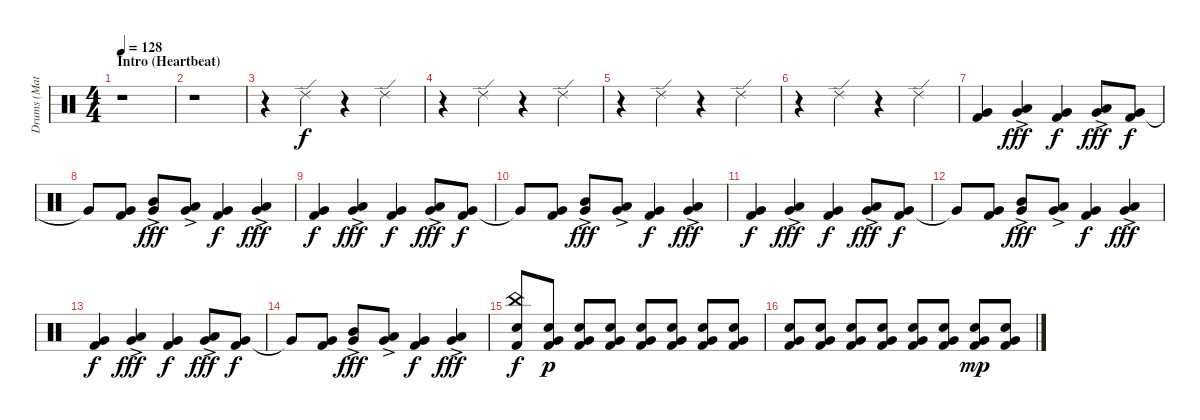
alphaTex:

\track ("Drums (Matt)" "Drums (Mat") {instrument percussion}
\staff {score}
\articulation defaults
\ts (4 4)
\section ("" "Intro (Heartbeat)")
\tempo 128
\clef neutral
\ks c
r.1{dy f} |
r.1 |
r.4 "Ride (edge) 2".4 r.4 "Ride (edge) 2".4 |
r.4 "Ride (edge) 2".4 r.4 "Ride (edge) 2".4 |
r.4 "Ride (edge) 2".4 r.4 "Ride (edge) 2".4 |
r.4 "Ride (edge) 2".4 r.4 "Ride (edge) 2".4 |
("Very Low Tom (hit)" "Kick (hit) 2").4 ("Low Tom (hit)" "Very Low Tom (hit)"{ac}).4{dy fff} ("Very Low Tom (hit)" "Kick (hit) 2").4{dy f} ("Low Tom (hit)" "Very Low Tom (hit)"{ac}).8{dy fff} ("Very Low Tom (hit)" "Kick (hit) 2").8{dy f} |
"Very Low Tom (hit)"{t}.8 ("Very Low Tom (hit)" "Kick (hit) 2").8 ("Mid Tom (hit)" "Very Low Tom (hit)"{ac}).8{dy fff} ("Low Tom (hit)" "Very Low Tom (hit)"{ac}).8 ("Very Low Tom (hit)" "Kick (hit) 2").4{dy f} ("Low Tom (hit)" "Very Low Tom (hit)"{ac}).4{dy fff} |
("Very Low Tom (hit)" "Kick (hit) 2").4{dy f} ("Low Tom (hit)" "Very Low Tom (hit)"{ac}).4{dy fff} ("Very Low Tom (hit)" "Kick (hit) 2").4{dy f} ("Low Tom (hit)" "Very Low Tom (hit)"{ac}).8{dy fff} ("Very Low Tom (hit)" "Kick (hit) 2").8{dy f} |
"Very Low Tom (hit)"{t}.8 ("Very Low Tom (hit)" "Kick (hit) 2").8 ("Mid Tom (hit)" "Very Low Tom (hit)"{ac}).8{dy fff} ("Low Tom (hit)" "Very Low Tom (hit)"{ac}).8 ("Very Low Tom (hit)" "Kick (hit) 2").4{dy f} ("Low Tom (hit)" "Very Low Tom (hit)"{ac}).4{dy fff} |
("Very Low Tom (hit)" "Kick (hit) 2").4{dy f} ("Low Tom (hit)" "Very Low Tom (hit)"{ac}).4{dy fff} ("Very Low Tom (hit)" "Kick (hit) 2").4{dy f} ("Low Tom (hit)" "Very Low Tom (hit)"{ac}).8{dy fff} ("Very Low Tom (hit)" "Kick (hit) 2").8{dy f} |
"Very Low Tom (hit)"{t}.8 ("Very Low Tom (hit)" "Kick (hit) 2").8 ("Mid Tom (hit)" "Very Low Tom (hit)"{ac}).8{dy fff} ("Low Tom (hit)" "Very Low Tom (hit)"{ac}).8 ("Very Low Tom (hit)" "Kick (hit) 2").4{dy f} ("Low Tom (hit)" "Very Low Tom (hit)"{ac}).4{dy fff} |
("Very Low Tom (hit)" "Kick (hit) 2").4{dy f} ("Low Tom (hit)" "Very Low Tom (hit)"{ac}).4{dy fff} ("Very Low Tom (hit)" "Kick (hit) 2").4{dy f} ("Low Tom (hit)" "Very Low Tom (hit)"{ac}).8{dy fff} ("Very Low Tom (hit)" "Kick (hit) 2").8{dy f} |
"Very Low Tom (hit)"{t}.8 ("Very Low Tom (hit)" "Kick (hit) 2").8 ("Mid Tom (hit)" "Very Low Tom (hit)"{ac}).8{dy fff} ("Low Tom (hit)" "Very Low Tom (hit)"{ac}).8 ("Very Low Tom (hit)" "Kick (hit) 2").4{dy f} ("Low Tom (hit)" "Very Low Tom (hit)"{ac}).4{dy fff} |
("China (hit)" "Snare (hit) 2" "Kick (hit) 2").8{dy f} ("Very Low Tom (hit)" "Snare (hit) 2" "Kick (hit) 2").8{dy p} ("Very Low Tom (hit)" "Snare (hit) 2" "Kick (hit) 2").8 ("Very Low Tom (hit)" "Snare (hit) 2" "Kick (hit) 2").8 ("Very Low Tom (hit)" "Snare (hit) 2" "Kick (hit) 2").8 ("Very Low Tom (hit)" "Snare (hit) 2" "Kick (hit) 2").8 ("Very Low Tom (hit)" "Snare (hit) 2" "Kick (hit) 2").8 ("Very Low Tom (hit)" "Snare (hit) 2" "Kick (hit) 2").8 |
("Very Low Tom (hit)" "Snare (hit) 2" "Kick (hit) 2").8 ("Very Low Tom (hit)" "Snare (hit) 2" "Kick (hit) 2").8 ("Very Low Tom (hit)" "Snare (hit) 2" "Kick (hit) 2").8 ("Very Low Tom (hit)" "Snare (hit) 2" "Kick (hit) 2").8 ("Very Low Tom (hit)" "Snare (hit) 2" "Kick (hit) 2").8 ("Very Low Tom (hit)" "Snare (hit) 2" "Kick (hit) 2").8 ("Very Low Tom (hit)" "Snare (hit) 2" "Kick (hit) 2").8{dy mp} ("Very Low Tom (hit)" "Snare (hit) 2" "Kick (hit) 2").8
